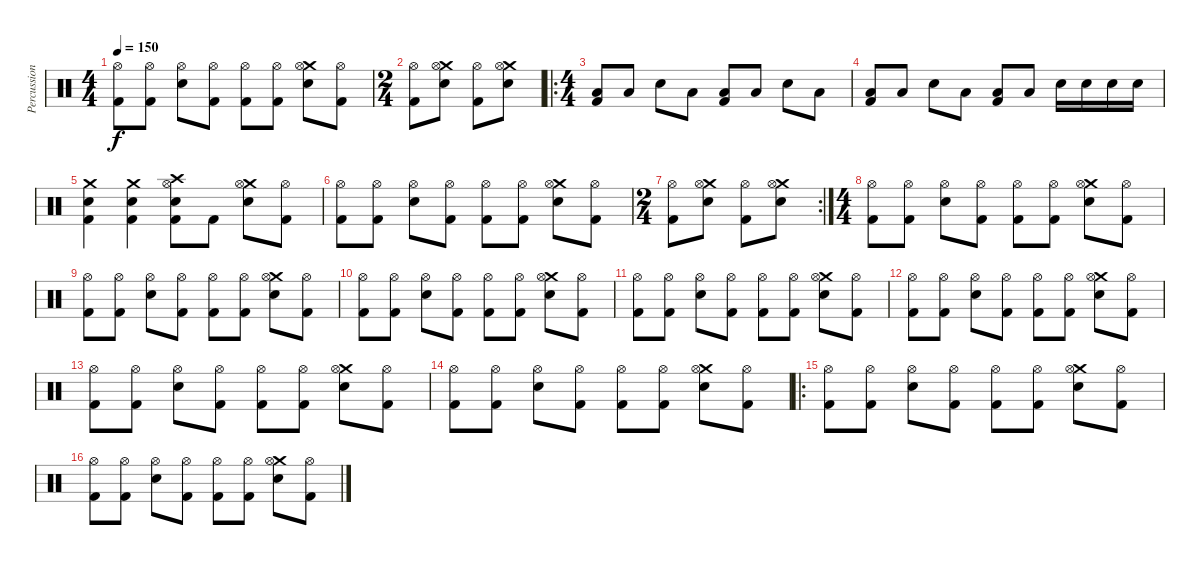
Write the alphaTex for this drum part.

\track ("Percussion" "Percussion") {instrument percussion}
\staff {score}
\articulation defaults
\ts (4 4)
\tempo 150
\clef neutral
\ks c
("Hi-Hat (open)" "Kick (hit) 2").8{dy f} ("Hi-Hat (open)" "Kick (hit) 2").8 ("Hi-Hat (open)" "Snare (hit) 2").8 ("Hi-Hat (open)" "Kick (hit) 2").8 ("Hi-Hat (open)" "Kick (hit) 2").8 ("Hi-Hat (open)" "Kick (hit) 2").8 ("Crash medium (hit)" "Hi-Hat (open)" "Snare (hit) 2").8 ("Hi-Hat (open)" "Kick (hit) 2").8 |
\ts (2 4)
("Hi-Hat (open)" "Kick (hit) 2").8 ("Crash medium (hit)" "Hi-Hat (open)" "Snare (hit) 2").8 ("Hi-Hat (open)" "Kick (hit) 2").8 ("Crash medium (hit)" "Hi-Hat (open)" "Snare (hit) 2").8 |
\ro
\ts (4 4)
("Low Floor Tom (hit)" "Kick (hit) 2").8 "Low Floor Tom (hit)".8 "Snare (hit) 2".8 "Low Floor Tom (hit)".8 ("Low Floor Tom (hit)" "Kick (hit) 2").8 "Low Floor Tom (hit)".8 "Snare (hit) 2".8 "Low Floor Tom (hit)".8 |
("Low Floor Tom (hit)" "Kick (hit) 2").8 "Low Floor Tom (hit)".8 "Snare (hit) 2".8 "Low Floor Tom (hit)".8 ("Low Floor Tom (hit)" "Kick (hit) 2").8 "Low Floor Tom (hit)".8 "Snare (hit) 2".16 "Snare (hit) 2".16 "Snare (hit) 2".16 "Snare (hit) 2".16 |
("Crash medium (hit)" "Snare (hit) 2" "Kick (hit) 2").4 ("Crash medium (hit)" "Snare (hit) 2" "Kick (hit) 2").4 ("Crash high (hit)" "Hi-Hat (open)" "Snare (hit) 2" "Kick (hit) 2").8 "Kick (hit) 2".8 ("Crash medium (hit)" "Hi-Hat (open)" "Snare (hit) 2").8 ("Hi-Hat (open)" "Kick (hit) 2").8 |
("Hi-Hat (open)" "Kick (hit) 2").8 ("Hi-Hat (open)" "Kick (hit) 2").8 ("Hi-Hat (open)" "Snare (hit) 2").8 ("Hi-Hat (open)" "Kick (hit) 2").8 ("Hi-Hat (open)" "Kick (hit) 2").8 ("Hi-Hat (open)" "Kick (hit) 2").8 ("Crash medium (hit)" "Hi-Hat (open)" "Snare (hit) 2").8 ("Hi-Hat (open)" "Kick (hit) 2").8 |
\rc 2
\ts (2 4)
("Hi-Hat (open)" "Kick (hit) 2").8 ("Crash medium (hit)" "Hi-Hat (open)" "Snare (hit) 2").8 ("Hi-Hat (open)" "Kick (hit) 2").8 ("Crash medium (hit)" "Hi-Hat (open)" "Snare (hit) 2").8 |
\ts (4 4)
("Hi-Hat (open)" "Kick (hit) 2").8 ("Hi-Hat (open)" "Kick (hit) 2").8 ("Hi-Hat (open)" "Snare (hit) 2").8 ("Hi-Hat (open)" "Kick (hit) 2").8 ("Hi-Hat (open)" "Kick (hit) 2").8 ("Hi-Hat (open)" "Kick (hit) 2").8 ("Crash medium (hit)" "Hi-Hat (open)" "Snare (hit) 2").8 ("Hi-Hat (open)" "Kick (hit) 2").8 |
("Hi-Hat (open)" "Kick (hit) 2").8 ("Hi-Hat (open)" "Kick (hit) 2").8 ("Hi-Hat (open)" "Snare (hit) 2").8 ("Hi-Hat (open)" "Kick (hit) 2").8 ("Hi-Hat (open)" "Kick (hit) 2").8 ("Hi-Hat (open)" "Kick (hit) 2").8 ("Crash medium (hit)" "Hi-Hat (open)" "Snare (hit) 2").8 ("Hi-Hat (open)" "Kick (hit) 2").8 |
("Hi-Hat (open)" "Kick (hit) 2").8 ("Hi-Hat (open)" "Kick (hit) 2").8 ("Hi-Hat (open)" "Snare (hit) 2").8 ("Hi-Hat (open)" "Kick (hit) 2").8 ("Hi-Hat (open)" "Kick (hit) 2").8 ("Hi-Hat (open)" "Kick (hit) 2").8 ("Crash medium (hit)" "Hi-Hat (open)" "Snare (hit) 2").8 ("Hi-Hat (open)" "Kick (hit) 2").8 |
("Hi-Hat (open)" "Kick (hit) 2").8 ("Hi-Hat (open)" "Kick (hit) 2").8 ("Hi-Hat (open)" "Snare (hit) 2").8 ("Hi-Hat (open)" "Kick (hit) 2").8 ("Hi-Hat (open)" "Kick (hit) 2").8 ("Hi-Hat (open)" "Kick (hit) 2").8 ("Crash medium (hit)" "Hi-Hat (open)" "Snare (hit) 2").8 ("Hi-Hat (open)" "Kick (hit) 2").8 |
("Hi-Hat (open)" "Kick (hit) 2").8 ("Hi-Hat (open)" "Kick (hit) 2").8 ("Hi-Hat (open)" "Snare (hit) 2").8 ("Hi-Hat (open)" "Kick (hit) 2").8 ("Hi-Hat (open)" "Kick (hit) 2").8 ("Hi-Hat (open)" "Kick (hit) 2").8 ("Crash medium (hit)" "Hi-Hat (open)" "Snare (hit) 2").8 ("Hi-Hat (open)" "Kick (hit) 2").8 |
("Hi-Hat (open)" "Kick (hit) 2").8 ("Hi-Hat (open)" "Kick (hit) 2").8 ("Hi-Hat (open)" "Snare (hit) 2").8 ("Hi-Hat (open)" "Kick (hit) 2").8 ("Hi-Hat (open)" "Kick (hit) 2").8 ("Hi-Hat (open)" "Kick (hit) 2").8 ("Crash medium (hit)" "Hi-Hat (open)" "Snare (hit) 2").8 ("Hi-Hat (open)" "Kick (hit) 2").8 |
("Hi-Hat (open)" "Kick (hit) 2").8 ("Hi-Hat (open)" "Kick (hit) 2").8 ("Hi-Hat (open)" "Snare (hit) 2").8 ("Hi-Hat (open)" "Kick (hit) 2").8 ("Hi-Hat (open)" "Kick (hit) 2").8 ("Hi-Hat (open)" "Kick (hit) 2").8 ("Crash medium (hit)" "Hi-Hat (open)" "Snare (hit) 2").8 ("Hi-Hat (open)" "Kick (hit) 2").8 |
\ro
("Hi-Hat (open)" "Kick (hit) 2").8 ("Hi-Hat (open)" "Kick (hit) 2").8 ("Hi-Hat (open)" "Snare (hit) 2").8 ("Hi-Hat (open)" "Kick (hit) 2").8 ("Hi-Hat (open)" "Kick (hit) 2").8 ("Hi-Hat (open)" "Kick (hit) 2").8 ("Crash medium (hit)" "Hi-Hat (open)" "Snare (hit) 2").8 ("Hi-Hat (open)" "Kick (hit) 2").8 |
("Hi-Hat (open)" "Kick (hit) 2").8 ("Hi-Hat (open)" "Kick (hit) 2").8 ("Hi-Hat (open)" "Snare (hit) 2").8 ("Hi-Hat (open)" "Kick (hit) 2").8 ("Hi-Hat (open)" "Kick (hit) 2").8 ("Hi-Hat (open)" "Kick (hit) 2").8 ("Crash medium (hit)" "Hi-Hat (open)" "Snare (hit) 2").8 ("Hi-Hat (open)" "Kick (hit) 2").8
